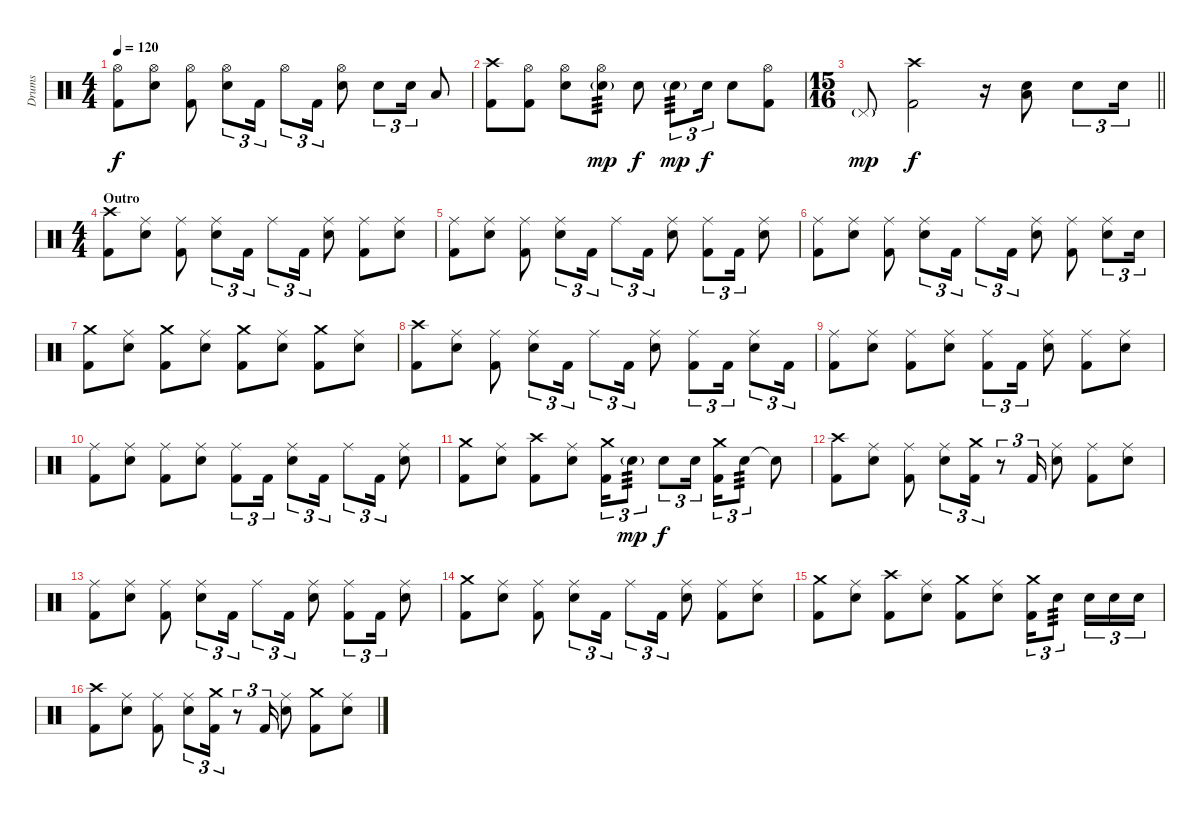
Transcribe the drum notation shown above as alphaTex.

\track ("Drums" "Drums") {instrument percussion}
\staff {score}
\articulation defaults
\ts (4 4)
\tempo 120
\clef neutral
\ks c
("Hi-Hat (open)" "Kick (hit) 2").8{dy f} ("Hi-Hat (open)" "Electric Snare (hit)").8 ("Hi-Hat (open)" "Kick (hit) 2").8 ("Hi-Hat (open)" "Electric Snare (hit)").8{tu (3 2)} "Kick (hit) 2".16{tu (3 2)} "Hi-Hat (open)".8{tu (3 2)} "Kick (hit) 2".16{tu (3 2)} ("Hi-Hat (open)" "Electric Snare (hit)").8 "Electric Snare (hit)".8{tu (3 2)} "Electric Snare (hit)".16{tu (3 2)} "Low Tom (hit)".8 |
("Crash high (hit)" "Kick (hit) 2").8 ("Hi-Hat (open)" "Kick (hit) 2").8 ("Hi-Hat (open)" "Electric Snare (hit)").8 ("Hi-Hat (open)" "Electric Snare (hit)"{g}).8{tp 3 dy mp} "Electric Snare (hit)".8{dy f} "Electric Snare (hit)"{g}.8{tu (3 2) tp 3 dy mp} "Electric Snare (hit)".16{tu (3 2) dy f} "Electric Snare (hit)".8 ("Hi-Hat (open)" "Kick (hit) 2").8 |
\ts (15 16)
\barLineRight lightlight "Pedal Hi-Hat (hit)"{g}.8{dy mp}
("Crash high (hit)" "Kick (hit) 2").2{dy f} r.16 ("Electric Snare (hit)" "Low Floor Tom (hit)").8 "Electric Snare (hit)".8{tu (3 2)} "Electric Snare (hit)".16{tu (3 2)} |
\ts (4 4)
\section ("" "Outro")
("Crash high (hit)" "Kick (hit) 2").8 ("Ride (middle)" "Electric Snare (hit)").8 ("Ride (middle)" "Kick (hit) 2").8 ("Ride (middle)" "Electric Snare (hit)").8{tu (3 2)} "Kick (hit) 2".16{tu (3 2)} "Ride (middle)".8{tu (3 2)} "Kick (hit) 2".16{tu (3 2)} ("Ride (middle)" "Electric Snare (hit)").8 ("Ride (middle)" "Kick (hit) 2").8 ("Ride (middle)" "Electric Snare (hit)").8 |
("Ride (middle)" "Kick (hit) 2").8 ("Ride (middle)" "Electric Snare (hit)").8 ("Ride (middle)" "Kick (hit) 2").8 ("Ride (middle)" "Electric Snare (hit)").8{tu (3 2)} "Kick (hit) 2".16{tu (3 2)} "Ride (middle)".8{tu (3 2)} "Kick (hit) 2".16{tu (3 2)} ("Ride (middle)" "Electric Snare (hit)").8 ("Ride (middle)" "Kick (hit) 2").8{tu (3 2)} "Kick (hit) 2".16{tu (3 2)} ("Ride (middle)" "Electric Snare (hit)").8 |
("Ride (middle)" "Kick (hit) 2").8 ("Ride (middle)" "Electric Snare (hit)").8 ("Ride (middle)" "Kick (hit) 2").8 ("Ride (middle)" "Electric Snare (hit)").8{tu (3 2)} "Kick (hit) 2".16{tu (3 2)} "Ride (middle)".8{tu (3 2)} "Kick (hit) 2".16{tu (3 2)} ("Ride (middle)" "Electric Snare (hit)").8 ("Ride (middle)" "Kick (hit) 2").8 ("Ride (middle)" "Electric Snare (hit)").8{tu (3 2)} "Electric Snare (hit)".16{tu (3 2)} |
("Crash medium (hit)" "Kick (hit) 2").8 ("Ride (middle)" "Electric Snare (hit)").8 ("Crash medium (hit)" "Kick (hit) 2").8 ("Ride (middle)" "Electric Snare (hit)").8 ("Crash medium (hit)" "Kick (hit) 2").8 ("Ride (middle)" "Electric Snare (hit)").8 ("Crash medium (hit)" "Kick (hit) 2").8 ("Ride (middle)" "Electric Snare (hit)").8 |
("Crash high (hit)" "Kick (hit) 2").8 ("Ride (middle)" "Electric Snare (hit)").8 ("Ride (middle)" "Kick (hit) 2").8 ("Ride (middle)" "Electric Snare (hit)").8{tu (3 2)} "Kick (hit) 2".16{tu (3 2)} "Ride (middle)".8{tu (3 2)} "Kick (hit) 2".16{tu (3 2)} ("Ride (middle)" "Electric Snare (hit)").8 ("Ride (middle)" "Kick (hit) 2").8{tu (3 2)} "Kick (hit) 2".16{tu (3 2)} ("Ride (middle)" "Electric Snare (hit)").8{tu (3 2)} "Kick (hit) 2".16{tu (3 2)} |
("Ride (middle)" "Kick (hit) 2").8 ("Ride (middle)" "Electric Snare (hit)").8 ("Ride (middle)" "Kick (hit) 2").8 ("Ride (middle)" "Electric Snare (hit)").8 ("Ride (middle)" "Kick (hit) 2").8{tu (3 2)} "Kick (hit) 2".16{tu (3 2)} ("Ride (middle)" "Electric Snare (hit)").8 ("Ride (middle)" "Kick (hit) 2").8 ("Ride (middle)" "Electric Snare (hit)").8 |
("Ride (middle)" "Kick (hit) 2").8 ("Ride (middle)" "Electric Snare (hit)").8 ("Ride (middle)" "Kick (hit) 2").8 ("Ride (middle)" "Electric Snare (hit)").8 ("Ride (middle)" "Kick (hit) 2").8{tu (3 2)} "Kick (hit) 2".16{tu (3 2)} ("Ride (middle)" "Electric Snare (hit)").8{tu (3 2)} "Kick (hit) 2".16{tu (3 2)} "Ride (middle)".8{tu (3 2)} "Kick (hit) 2".16{tu (3 2)} ("Ride (middle)" "Electric Snare (hit)").8 |
("Crash medium (hit)" "Kick (hit) 2").8 ("Ride (middle)" "Electric Snare (hit)").8 ("Crash high (hit)" "Kick (hit) 2").8 ("Ride (middle)" "Electric Snare (hit)").8 ("Crash medium (hit)" "Kick (hit) 2").16{tu (3 2)} "Electric Snare (hit)"{g}.8{tu (3 2) tp 3 dy mp} "Electric Snare (hit)".8{tu (3 2) dy f} "Electric Snare (hit)".16{tu (3 2)} ("Crash medium (hit)" "Kick (hit) 2").16{tu (3 2)} "Electric Snare (hit)".8{tu (3 2) tp 3} "Snare (hit)"{t}.8 |
("Crash high (hit)" "Kick (hit) 2").8 ("Ride (middle)" "Electric Snare (hit)").8 ("Ride (middle)" "Kick (hit) 2").8 ("Ride (middle)" "Electric Snare (hit)").8{tu (3 2)} ("Crash medium (hit)" "Kick (hit) 2").16{tu (3 2)} r.8{tu (3 2)} "Kick (hit) 2".16{tu (3 2)} ("Ride (middle)" "Electric Snare (hit)").8 ("Ride (middle)" "Kick (hit) 2").8 ("Ride (middle)" "Electric Snare (hit)").8 |
("Ride (middle)" "Kick (hit) 2").8 ("Ride (middle)" "Electric Snare (hit)").8 ("Ride (middle)" "Kick (hit) 2").8 ("Ride (middle)" "Electric Snare (hit)").8{tu (3 2)} "Kick (hit) 2".16{tu (3 2)} "Ride (middle)".8{tu (3 2)} "Kick (hit) 2".16{tu (3 2)} ("Ride (middle)" "Electric Snare (hit)").8 ("Ride (middle)" "Kick (hit) 2").8{tu (3 2)} "Kick (hit) 2".16{tu (3 2)} ("Ride (middle)" "Electric Snare (hit)").8 |
("Crash medium (hit)" "Kick (hit) 2").8 ("Ride (middle)" "Electric Snare (hit)").8 ("Ride (middle)" "Kick (hit) 2").8 ("Ride (middle)" "Electric Snare (hit)").8{tu (3 2)} "Kick (hit) 2".16{tu (3 2)} "Ride (middle)".8{tu (3 2)} "Kick (hit) 2".16{tu (3 2)} ("Ride (middle)" "Electric Snare (hit)").8 ("Ride (middle)" "Kick (hit) 2").8 ("Ride (middle)" "Electric Snare (hit)").8 |
("Crash medium (hit)" "Kick (hit) 2").8 ("Ride (middle)" "Electric Snare (hit)").8 ("Crash high (hit)" "Kick (hit) 2").8 ("Ride (middle)" "Electric Snare (hit)").8 ("Crash medium (hit)" "Kick (hit) 2").8 ("Ride (middle)" "Electric Snare (hit)").8 ("Crash medium (hit)" "Kick (hit) 2").16{tu (3 2)} "Electric Snare (hit)".8{tu (3 2) tp 3} "Electric Snare (hit)".16{tu (3 2)} "Electric Snare (hit)".16{tu (3 2)} "Electric Snare (hit)".16{tu (3 2)} |
("Crash high (hit)" "Kick (hit) 2").8 ("Ride (middle)" "Electric Snare (hit)").8 ("Ride (middle)" "Kick (hit) 2").8 ("Ride (middle)" "Electric Snare (hit)").8{tu (3 2)} ("Crash medium (hit)" "Kick (hit) 2").16{tu (3 2)} r.8{tu (3 2)} "Kick (hit) 2".16{tu (3 2)} ("Ride (middle)" "Electric Snare (hit)").8 ("Crash medium (hit)" "Kick (hit) 2").8 ("Ride (middle)" "Electric Snare (hit)").8
